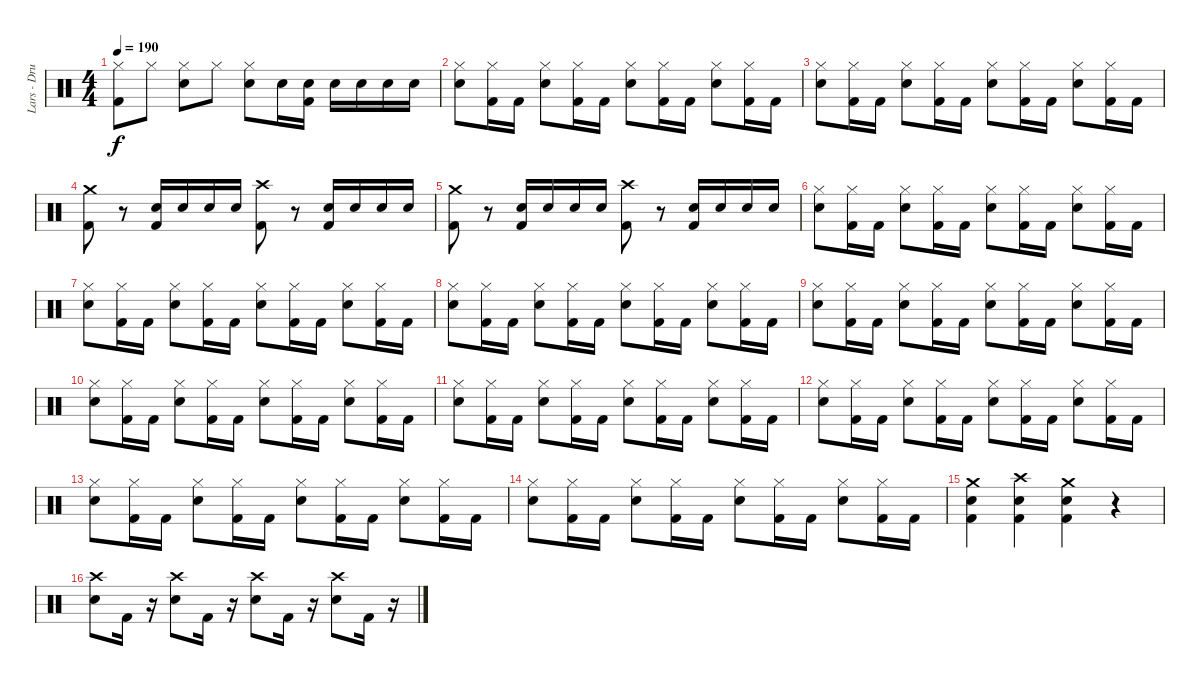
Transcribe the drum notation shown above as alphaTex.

\track ("Lars - Drums" "Lars - Dru") {instrument percussion}
\staff {score}
\articulation defaults
\ts (4 4)
\tempo 190
\clef neutral
\ks c
("Kick (hit) 2" "Hi-Hat (closed)").8{dy f} "Hi-Hat (closed)".8 ("Snare (hit) 2" "Hi-Hat (closed)").8 "Hi-Hat (closed)".8 ("Snare (hit) 2" "Hi-Hat (closed)").8 "Snare (hit) 2".16 ("Snare (hit) 2" "Kick (hit) 2").16 "Snare (hit) 2".16 "Snare (hit) 2".16 "Snare (hit) 2".16 "Snare (hit) 2".16 |
("Snare (hit) 2" "Hi-Hat (closed)").8 ("Kick (hit) 2" "Hi-Hat (closed)").16 "Kick (hit) 2".16 ("Snare (hit) 2" "Hi-Hat (closed)").8 ("Kick (hit) 2" "Hi-Hat (closed)").16 "Kick (hit) 2".16 ("Snare (hit) 2" "Hi-Hat (closed)").8 ("Kick (hit) 2" "Hi-Hat (closed)").16 "Kick (hit) 2".16 ("Snare (hit) 2" "Hi-Hat (closed)").8 ("Kick (hit) 2" "Hi-Hat (closed)").16 "Kick (hit) 2".16 |
("Snare (hit) 2" "Hi-Hat (closed)").8 ("Kick (hit) 2" "Hi-Hat (closed)").16 "Kick (hit) 2".16 ("Snare (hit) 2" "Hi-Hat (closed)").8 ("Kick (hit) 2" "Hi-Hat (closed)").16 "Kick (hit) 2".16 ("Snare (hit) 2" "Hi-Hat (closed)").8 ("Kick (hit) 2" "Hi-Hat (closed)").16 "Kick (hit) 2".16 ("Snare (hit) 2" "Hi-Hat (closed)").8 ("Kick (hit) 2" "Hi-Hat (closed)").16 "Kick (hit) 2".16 |
("Crash medium (hit)" "Kick (hit) 2").8 r.8 ("Snare (hit) 2" "Kick (hit) 2").16 "Snare (hit) 2".16 "Snare (hit) 2".16 "Snare (hit) 2".16 ("Crash high (hit)" "Kick (hit) 2").8 r.8 ("Snare (hit) 2" "Kick (hit) 2").16 "Snare (hit) 2".16 "Snare (hit) 2".16 "Snare (hit) 2".16 |
("Crash medium (hit)" "Kick (hit) 2").8 r.8 ("Snare (hit) 2" "Kick (hit) 2").16 "Snare (hit) 2".16 "Snare (hit) 2".16 "Snare (hit) 2".16 ("Crash high (hit)" "Kick (hit) 2").8 r.8 ("Snare (hit) 2" "Kick (hit) 2").16 "Snare (hit) 2".16 "Snare (hit) 2".16 "Snare (hit) 2".16 |
("Snare (hit) 2" "Hi-Hat (closed)").8 ("Kick (hit) 2" "Hi-Hat (closed)").16 "Kick (hit) 2".16 ("Snare (hit) 2" "Hi-Hat (closed)").8 ("Kick (hit) 2" "Hi-Hat (closed)").16 "Kick (hit) 2".16 ("Snare (hit) 2" "Hi-Hat (closed)").8 ("Kick (hit) 2" "Hi-Hat (closed)").16 "Kick (hit) 2".16 ("Snare (hit) 2" "Hi-Hat (closed)").8 ("Kick (hit) 2" "Hi-Hat (closed)").16 "Kick (hit) 2".16 |
("Snare (hit) 2" "Hi-Hat (closed)").8 ("Kick (hit) 2" "Hi-Hat (closed)").16 "Kick (hit) 2".16 ("Snare (hit) 2" "Hi-Hat (closed)").8 ("Kick (hit) 2" "Hi-Hat (closed)").16 "Kick (hit) 2".16 ("Snare (hit) 2" "Hi-Hat (closed)").8 ("Kick (hit) 2" "Hi-Hat (closed)").16 "Kick (hit) 2".16 ("Snare (hit) 2" "Hi-Hat (closed)").8 ("Kick (hit) 2" "Hi-Hat (closed)").16 "Kick (hit) 2".16 |
("Snare (hit) 2" "Hi-Hat (closed)").8 ("Kick (hit) 2" "Hi-Hat (closed)").16 "Kick (hit) 2".16 ("Snare (hit) 2" "Hi-Hat (closed)").8 ("Kick (hit) 2" "Hi-Hat (closed)").16 "Kick (hit) 2".16 ("Snare (hit) 2" "Hi-Hat (closed)").8 ("Kick (hit) 2" "Hi-Hat (closed)").16 "Kick (hit) 2".16 ("Snare (hit) 2" "Hi-Hat (closed)").8 ("Kick (hit) 2" "Hi-Hat (closed)").16 "Kick (hit) 2".16 |
("Snare (hit) 2" "Hi-Hat (closed)").8 ("Kick (hit) 2" "Hi-Hat (closed)").16 "Kick (hit) 2".16 ("Snare (hit) 2" "Hi-Hat (closed)").8 ("Kick (hit) 2" "Hi-Hat (closed)").16 "Kick (hit) 2".16 ("Snare (hit) 2" "Hi-Hat (closed)").8 ("Kick (hit) 2" "Hi-Hat (closed)").16 "Kick (hit) 2".16 ("Snare (hit) 2" "Hi-Hat (closed)").8 ("Kick (hit) 2" "Hi-Hat (closed)").16 "Kick (hit) 2".16 |
("Snare (hit) 2" "Hi-Hat (closed)").8 ("Kick (hit) 2" "Hi-Hat (closed)").16 "Kick (hit) 2".16 ("Snare (hit) 2" "Hi-Hat (closed)").8 ("Kick (hit) 2" "Hi-Hat (closed)").16 "Kick (hit) 2".16 ("Snare (hit) 2" "Hi-Hat (closed)").8 ("Kick (hit) 2" "Hi-Hat (closed)").16 "Kick (hit) 2".16 ("Snare (hit) 2" "Hi-Hat (closed)").8 ("Kick (hit) 2" "Hi-Hat (closed)").16 "Kick (hit) 2".16 |
("Snare (hit) 2" "Hi-Hat (closed)").8 ("Kick (hit) 2" "Hi-Hat (closed)").16 "Kick (hit) 2".16 ("Snare (hit) 2" "Hi-Hat (closed)").8 ("Kick (hit) 2" "Hi-Hat (closed)").16 "Kick (hit) 2".16 ("Snare (hit) 2" "Hi-Hat (closed)").8 ("Kick (hit) 2" "Hi-Hat (closed)").16 "Kick (hit) 2".16 ("Snare (hit) 2" "Hi-Hat (closed)").8 ("Kick (hit) 2" "Hi-Hat (closed)").16 "Kick (hit) 2".16 |
("Snare (hit) 2" "Hi-Hat (closed)").8 ("Kick (hit) 2" "Hi-Hat (closed)").16 "Kick (hit) 2".16 ("Snare (hit) 2" "Hi-Hat (closed)").8 ("Kick (hit) 2" "Hi-Hat (closed)").16 "Kick (hit) 2".16 ("Snare (hit) 2" "Hi-Hat (closed)").8 ("Kick (hit) 2" "Hi-Hat (closed)").16 "Kick (hit) 2".16 ("Snare (hit) 2" "Hi-Hat (closed)").8 ("Kick (hit) 2" "Hi-Hat (closed)").16 "Kick (hit) 2".16 |
("Snare (hit) 2" "Hi-Hat (closed)").8 ("Kick (hit) 2" "Hi-Hat (closed)").16 "Kick (hit) 2".16 ("Snare (hit) 2" "Hi-Hat (closed)").8 ("Kick (hit) 2" "Hi-Hat (closed)").16 "Kick (hit) 2".16 ("Snare (hit) 2" "Hi-Hat (closed)").8 ("Kick (hit) 2" "Hi-Hat (closed)").16 "Kick (hit) 2".16 ("Snare (hit) 2" "Hi-Hat (closed)").8 ("Kick (hit) 2" "Hi-Hat (closed)").16 "Kick (hit) 2".16 |
("Snare (hit) 2" "Hi-Hat (closed)").8 ("Kick (hit) 2" "Hi-Hat (closed)").16 "Kick (hit) 2".16 ("Snare (hit) 2" "Hi-Hat (closed)").8 ("Kick (hit) 2" "Hi-Hat (closed)").16 "Kick (hit) 2".16 ("Snare (hit) 2" "Hi-Hat (closed)").8 ("Kick (hit) 2" "Hi-Hat (closed)").16 "Kick (hit) 2".16 ("Snare (hit) 2" "Hi-Hat (closed)").8 ("Kick (hit) 2" "Hi-Hat (closed)").16 "Kick (hit) 2".16 |
("Crash medium (hit)" "Snare (hit) 2" "Kick (hit) 2").4 ("Crash high (hit)" "Snare (hit) 2" "Kick (hit) 2").4 ("Crash medium (hit)" "Snare (hit) 2" "Kick (hit) 2").4 r.4 |
("Snare (hit) 2" "Crash high (hit)").8 "Kick (hit) 2".16 r.16 ("Snare (hit) 2" "Crash high (hit)").8 "Kick (hit) 2".16 r.16 ("Snare (hit) 2" "Crash high (hit)").8 "Kick (hit) 2".16 r.16 ("Snare (hit) 2" "Crash high (hit)").8 "Kick (hit) 2".16 r.16
